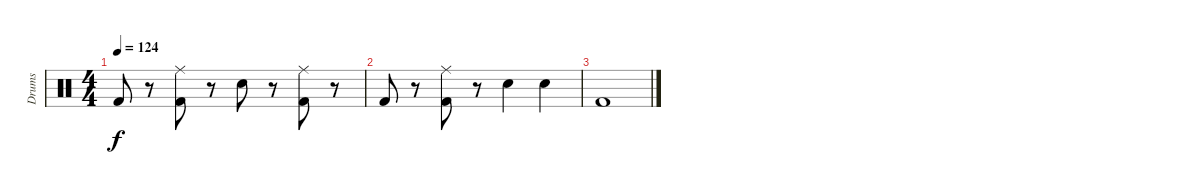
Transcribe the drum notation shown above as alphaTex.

\track ("Drums" "Drums") {instrument percussion}
\staff {score}
\articulation defaults
\ts (4 4)
\tempo 124
\clef neutral
\ks c "Kick (hit) 2".8{dy f}
r.8 ("Kick (hit) 2" "Ride (middle)").8 r.8 "Snare (hit) 2".8 r.8 ("Kick (hit) 2" "Ride (middle)").8 r.8 |
"Kick (hit) 2".8 r.8 ("Kick (hit) 2" "Ride (middle)").8 r.8 "Snare (hit) 2".4 "Snare (hit) 2".4 |
"Kick (hit) 2".1
